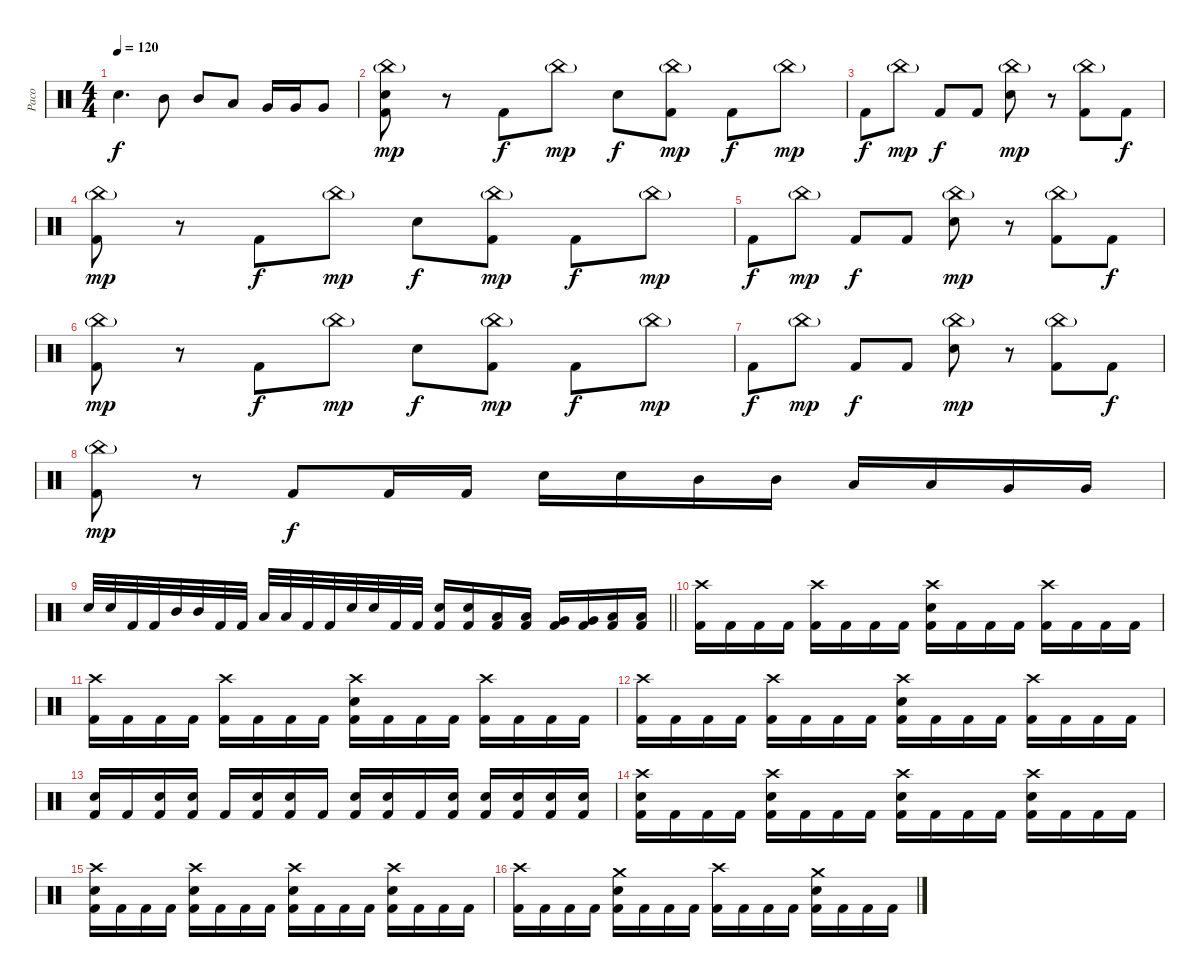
\track ("Paco" "Paco") {instrument percussion}
\staff {score}
\articulation defaults
\ts (4 4)
\tempo 120
\clef neutral
\ks c "Electric Snare (hit)".4{d dy f} "Mid Tom (hit)".8 "Mid Tom (hit)".8 "Low Tom (hit)".8 "Very Low Tom (hit)".16 "Very Low Tom (hit)".16 "Very Low Tom (hit)".8
|
("China (hit)"{g} "Snare (hit)" "Kick (hit) 2").8{dy mp} r.8 "Kick (hit) 2".8{dy f} "China (hit)"{g}.8{dy mp} "Electric Snare (hit)".8{dy f} ("China (hit)"{g} "Kick (hit) 2").8{dy mp} "Kick (hit) 2".8{dy f} "China (hit)"{g}.8{dy mp} |
"Kick (hit) 2".8{dy f} "China (hit)"{g}.8{dy mp} "Kick (hit) 2".8{dy f} "Kick (hit) 2".8 ("China (hit)"{g} "Electric Snare (hit)").8{dy mp} r.8 ("China (hit)"{g} "Kick (hit) 2").8 "Kick (hit) 2".8{dy f} |
("China (hit)"{g} "Kick (hit) 2").8{dy mp} r.8 "Kick (hit) 2".8{dy f} "China (hit)"{g}.8{dy mp} "Electric Snare (hit)".8{dy f} ("China (hit)"{g} "Kick (hit) 2").8{dy mp} "Kick (hit) 2".8{dy f} "China (hit)"{g}.8{dy mp} |
"Kick (hit) 2".8{dy f} "China (hit)"{g}.8{dy mp} "Kick (hit) 2".8{dy f} "Kick (hit) 2".8 ("China (hit)"{g} "Electric Snare (hit)").8{dy mp} r.8 ("China (hit)"{g} "Kick (hit) 2").8 "Kick (hit) 2".8{dy f} |
("China (hit)"{g} "Kick (hit) 2").8{dy mp} r.8 "Kick (hit) 2".8{dy f} "China (hit)"{g}.8{dy mp} "Electric Snare (hit)".8{dy f} ("China (hit)"{g} "Kick (hit) 2").8{dy mp} "Kick (hit) 2".8{dy f} "China (hit)"{g}.8{dy mp} |
"Kick (hit) 2".8{dy f} "China (hit)"{g}.8{dy mp} "Kick (hit) 2".8{dy f} "Kick (hit) 2".8 ("China (hit)"{g} "Electric Snare (hit)").8{dy mp} r.8 ("China (hit)"{g} "Kick (hit) 2").8 "Kick (hit) 2".8{dy f} |
("China (hit)"{g} "Kick (hit) 2").8{dy mp} r.8 "Kick (hit) 2".8{dy f} "Kick (hit) 2".16 "Kick (hit) 2".16 "Electric Snare (hit)".16 "Electric Snare (hit)".16 "Mid Tom (hit)".16 "Mid Tom (hit)".16 "Low Tom (hit)".16 "Low Tom (hit)".16 "Very Low Tom (hit)".16 "Very Low Tom (hit)".16 |
\barLineRight lightlight "Electric Snare (hit)".32 "Electric Snare (hit)".32 "Kick (hit) 2".32 "Kick (hit) 2".32 "Mid Tom (hit)".32 "Mid Tom (hit)".32 "Kick (hit) 2".32 "Kick (hit) 2".32 "Low Tom (hit)".32 "Low Tom (hit)".32 "Kick (hit) 2".32 "Kick (hit) 2".32 "Electric Snare (hit)".32 "Electric Snare (hit)".32 "Kick (hit) 2".32 "Kick (hit) 2".32
("Electric Snare (hit)" "Kick (hit) 2").16 ("Electric Snare (hit)" "Kick (hit) 2").16 ("Low Tom (hit)" "Kick (hit) 2").16 ("Low Tom (hit)" "Kick (hit) 2").16 ("Very Low Tom (hit)" "Kick (hit) 2").16 ("Very Low Tom (hit)" "Kick (hit) 2").16 ("Low Floor Tom (hit)" "Kick (hit) 2").16 ("Low Floor Tom (hit)" "Kick (hit) 2").16 |
\section ("" "")
("Crash high (hit)" "Kick (hit) 2").16 "Kick (hit) 2".16 "Kick (hit) 2".16 "Kick (hit) 2".16 ("Crash high (hit)" "Kick (hit) 2").16 "Kick (hit) 2".16 "Kick (hit) 2".16 "Kick (hit) 2".16 ("Crash high (hit)" "Electric Snare (hit)" "Kick (hit) 2").16 "Kick (hit) 2".16 "Kick (hit) 2".16 "Kick (hit) 2".16 ("Crash high (hit)" "Kick (hit) 2").16 "Kick (hit) 2".16 "Kick (hit) 2".16 "Kick (hit) 2".16 |
("Crash high (hit)" "Kick (hit) 2").16 "Kick (hit) 2".16 "Kick (hit) 2".16 "Kick (hit) 2".16 ("Crash high (hit)" "Kick (hit) 2").16 "Kick (hit) 2".16 "Kick (hit) 2".16 "Kick (hit) 2".16 ("Crash high (hit)" "Electric Snare (hit)" "Kick (hit) 2").16 "Kick (hit) 2".16 "Kick (hit) 2".16 "Kick (hit) 2".16 ("Crash high (hit)" "Kick (hit) 2").16 "Kick (hit) 2".16 "Kick (hit) 2".16 "Kick (hit) 2".16 |
("Crash high (hit)" "Kick (hit) 2").16 "Kick (hit) 2".16 "Kick (hit) 2".16 "Kick (hit) 2".16 ("Crash high (hit)" "Kick (hit) 2").16 "Kick (hit) 2".16 "Kick (hit) 2".16 "Kick (hit) 2".16 ("Crash high (hit)" "Electric Snare (hit)" "Kick (hit) 2").16 "Kick (hit) 2".16 "Kick (hit) 2".16 "Kick (hit) 2".16 ("Crash high (hit)" "Kick (hit) 2").16 "Kick (hit) 2".16 "Kick (hit) 2".16 "Kick (hit) 2".16 |
("Electric Snare (hit)" "Kick (hit) 2").16 "Kick (hit) 2".16 ("Electric Snare (hit)" "Kick (hit) 2").16 ("Electric Snare (hit)" "Kick (hit) 2").16 "Kick (hit) 2".16 ("Electric Snare (hit)" "Kick (hit) 2").16 ("Electric Snare (hit)" "Kick (hit) 2").16 "Kick (hit) 2".16 ("Electric Snare (hit)" "Kick (hit) 2").16 ("Electric Snare (hit)" "Kick (hit) 2").16 "Kick (hit) 2".16 ("Electric Snare (hit)" "Kick (hit) 2").16 ("Electric Snare (hit)" "Kick (hit) 2").16 ("Electric Snare (hit)" "Kick (hit) 2").16 ("Electric Snare (hit)" "Kick (hit) 2").16 ("Electric Snare (hit)" "Kick (hit) 2").16 |
("Crash high (hit)" "Electric Snare (hit)" "Kick (hit) 2").16 "Kick (hit) 2".16 "Kick (hit) 2".16 "Kick (hit) 2".16 ("Crash high (hit)" "Electric Snare (hit)" "Kick (hit) 2").16 "Kick (hit) 2".16 "Kick (hit) 2".16 "Kick (hit) 2".16 ("Crash high (hit)" "Electric Snare (hit)" "Kick (hit) 2").16 "Kick (hit) 2".16 "Kick (hit) 2".16 "Kick (hit) 2".16 ("Crash high (hit)" "Electric Snare (hit)" "Kick (hit) 2").16 "Kick (hit) 2".16 "Kick (hit) 2".16 "Kick (hit) 2".16 |
("Crash high (hit)" "Electric Snare (hit)" "Kick (hit) 2").16 "Kick (hit) 2".16 "Kick (hit) 2".16 "Kick (hit) 2".16 ("Crash high (hit)" "Electric Snare (hit)" "Kick (hit) 2").16 "Kick (hit) 2".16 "Kick (hit) 2".16 "Kick (hit) 2".16 ("Crash high (hit)" "Electric Snare (hit)" "Kick (hit) 2").16 "Kick (hit) 2".16 "Kick (hit) 2".16 "Kick (hit) 2".16 ("Crash high (hit)" "Electric Snare (hit)" "Kick (hit) 2").16 "Kick (hit) 2".16 "Kick (hit) 2".16 "Kick (hit) 2".16 |
("Crash high (hit)" "Kick (hit) 2").16 "Kick (hit) 2".16 "Kick (hit) 2".16 "Kick (hit) 2".16 ("Crash medium (hit)" "Electric Snare (hit)" "Kick (hit) 2").16 "Kick (hit) 2".16 "Kick (hit) 2".16 "Kick (hit) 2".16 ("Crash high (hit)" "Kick (hit) 2").16 "Kick (hit) 2".16 "Kick (hit) 2".16 "Kick (hit) 2".16 ("Crash medium (hit)" "Electric Snare (hit)" "Kick (hit) 2").16 "Kick (hit) 2".16 "Kick (hit) 2".16 "Kick (hit) 2".16
